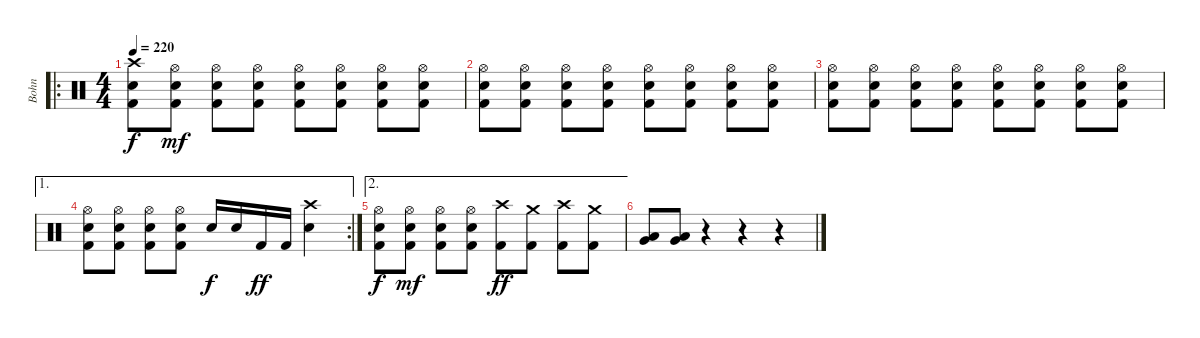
\track ("Bohn" "Bohn") {instrument percussion}
\staff {score}
\articulation defaults
\ro
\ts (4 4)
\tempo 220
\clef neutral
\ks c
("Crash high (hit)" "Electric Snare (hit)" "Kick (hit) 2").8{dy f} ("Hi-Hat (open)" "Electric Snare (hit)" "Kick (hit) 2").8{dy mf} ("Hi-Hat (open)" "Electric Snare (hit)" "Kick (hit) 2").8 ("Hi-Hat (open)" "Electric Snare (hit)" "Kick (hit) 2").8 ("Hi-Hat (open)" "Electric Snare (hit)" "Kick (hit) 2").8 ("Hi-Hat (open)" "Electric Snare (hit)" "Kick (hit) 2").8 ("Hi-Hat (open)" "Electric Snare (hit)" "Kick (hit) 2").8 ("Hi-Hat (open)" "Electric Snare (hit)" "Kick (hit) 2").8 |
("Hi-Hat (open)" "Electric Snare (hit)" "Kick (hit) 2").8 ("Hi-Hat (open)" "Electric Snare (hit)" "Kick (hit) 2").8 ("Hi-Hat (open)" "Electric Snare (hit)" "Kick (hit) 2").8 ("Hi-Hat (open)" "Electric Snare (hit)" "Kick (hit) 2").8 ("Hi-Hat (open)" "Electric Snare (hit)" "Kick (hit) 2").8 ("Hi-Hat (open)" "Electric Snare (hit)" "Kick (hit) 2").8 ("Hi-Hat (open)" "Electric Snare (hit)" "Kick (hit) 2").8 ("Hi-Hat (open)" "Electric Snare (hit)" "Kick (hit) 2").8 |
("Hi-Hat (open)" "Electric Snare (hit)" "Kick (hit) 2").8 ("Hi-Hat (open)" "Electric Snare (hit)" "Kick (hit) 2").8 ("Hi-Hat (open)" "Electric Snare (hit)" "Kick (hit) 2").8 ("Hi-Hat (open)" "Electric Snare (hit)" "Kick (hit) 2").8 ("Hi-Hat (open)" "Electric Snare (hit)" "Kick (hit) 2").8 ("Hi-Hat (open)" "Electric Snare (hit)" "Kick (hit) 2").8 ("Hi-Hat (open)" "Electric Snare (hit)" "Kick (hit) 2").8 ("Hi-Hat (open)" "Electric Snare (hit)" "Kick (hit) 2").8 |
\ae 1
\rc 2
("Hi-Hat (open)" "Electric Snare (hit)" "Kick (hit) 2").8 ("Hi-Hat (open)" "Electric Snare (hit)" "Kick (hit) 2").8 ("Hi-Hat (open)" "Electric Snare (hit)" "Kick (hit) 2").8 ("Hi-Hat (open)" "Electric Snare (hit)" "Kick (hit) 2").8 "Electric Snare (hit)".16{dy f} "Electric Snare (hit)".16 "Kick (hit) 2".16{dy ff} "Kick (hit) 2".16 ("Crash high (hit)" "Electric Snare (hit)").4 |
\ae 2
("Hi-Hat (open)" "Electric Snare (hit)" "Kick (hit) 2").8{dy f} ("Hi-Hat (open)" "Electric Snare (hit)" "Kick (hit) 2").8{dy mf} ("Hi-Hat (open)" "Electric Snare (hit)" "Kick (hit) 2").8 ("Hi-Hat (open)" "Electric Snare (hit)" "Kick (hit) 2").8 ("Crash high (hit)" "Kick (hit) 2").8{dy ff} ("Crash medium (hit)" "Kick (hit) 2").8 ("Crash high (hit)" "Kick (hit) 2").8 ("Crash medium (hit)" "Kick (hit) 2").8 |
("Very Low Tom (hit)" "Low Floor Tom (hit)").8 ("Very Low Tom (hit)" "Low Floor Tom (hit)").8 r.4 r.4{volume 0} r.4
